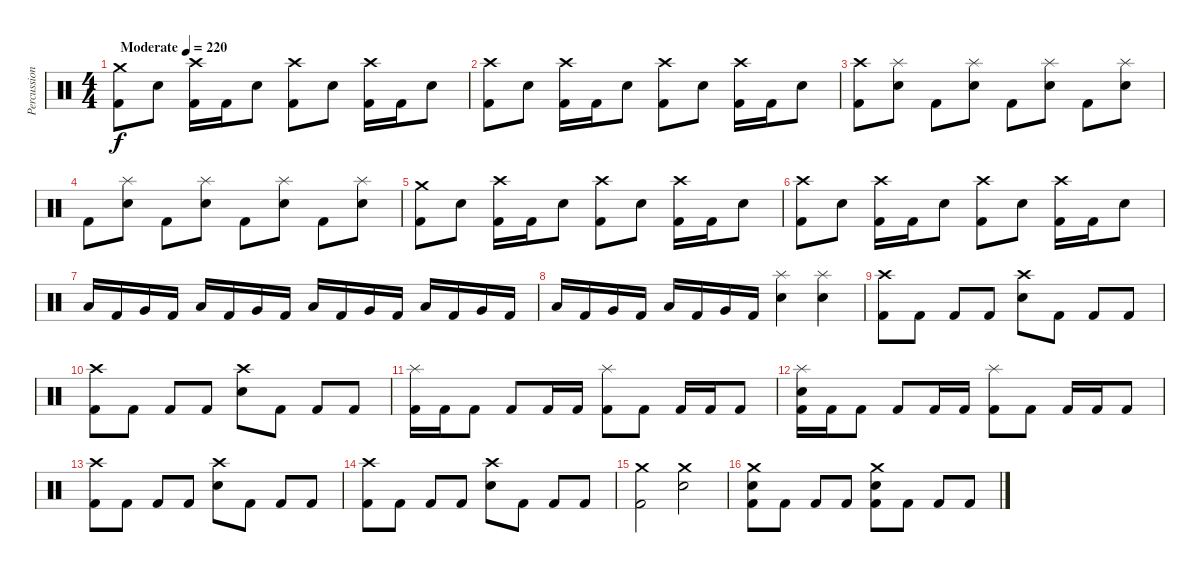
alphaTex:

\track ("Percussions" "Percussion") {instrument percussion}
\staff {score}
\articulation defaults
\ts (4 4)
\tempo (220 "Moderate")
\clef neutral
\ks c
("Crash medium (hit)" "Kick (hit) 2").8{dy f} "Electric Snare (hit)".8 ("Crash high (hit)" "Kick (hit) 2").16 "Kick (hit) 2".16 "Electric Snare (hit)".8 ("Crash high (hit)" "Kick (hit) 2").8 "Electric Snare (hit)".8 ("Crash high (hit)" "Kick (hit) 2").16 "Kick (hit) 2".16 "Electric Snare (hit)".8 |
("Crash high (hit)" "Kick (hit) 2").8 "Electric Snare (hit)".8 ("Crash high (hit)" "Kick (hit) 2").16 "Kick (hit) 2".16 "Electric Snare (hit)".8 ("Crash high (hit)" "Kick (hit) 2").8 "Electric Snare (hit)".8 ("Crash high (hit)" "Kick (hit) 2").16 "Kick (hit) 2".16 "Electric Snare (hit)".8 |
("Crash high (hit)" "Kick (hit) 2").8 ("Splash (hit)" "Electric Snare (hit)").8 "Kick (hit) 2".8 ("Splash (hit)" "Electric Snare (hit)").8 "Kick (hit) 2".8 ("Splash (hit)" "Electric Snare (hit)").8 "Kick (hit) 2".8 ("Splash (hit)" "Electric Snare (hit)").8 |
"Kick (hit) 2".8 ("Splash (hit)" "Electric Snare (hit)").8 "Kick (hit) 2".8 ("Splash (hit)" "Electric Snare (hit)").8 "Kick (hit) 2".8 ("Splash (hit)" "Electric Snare (hit)").8 "Kick (hit) 2".8 ("Splash (hit)" "Electric Snare (hit)").8 |
("Crash medium (hit)" "Kick (hit) 2").8 "Electric Snare (hit)".8 ("Crash high (hit)" "Kick (hit) 2").16 "Kick (hit) 2".16 "Electric Snare (hit)".8 ("Crash high (hit)" "Kick (hit) 2").8 "Electric Snare (hit)".8 ("Crash high (hit)" "Kick (hit) 2").16 "Kick (hit) 2".16 "Electric Snare (hit)".8 |
("Crash high (hit)" "Kick (hit) 2").8 "Electric Snare (hit)".8 ("Crash high (hit)" "Kick (hit) 2").16 "Kick (hit) 2".16 "Electric Snare (hit)".8 ("Crash high (hit)" "Kick (hit) 2").8 "Electric Snare (hit)".8 ("Crash high (hit)" "Kick (hit) 2").16 "Kick (hit) 2".16 "Electric Snare (hit)".8 |
"Low Tom (hit)".16 "Kick (hit) 2".16 "Very Low Tom (hit)".16 "Kick (hit) 2".16 "Low Floor Tom (hit)".16 "Kick (hit) 2".16 "Very Low Tom (hit)".16 "Kick (hit) 2".16 "Low Tom (hit)".16 "Kick (hit) 2".16 "Very Low Tom (hit)".16 "Kick (hit) 2".16 "Low Floor Tom (hit)".16 "Kick (hit) 2".16 "Very Low Tom (hit)".16 "Kick (hit) 2".16 |
"Low Tom (hit)".16 "Kick (hit) 2".16 "Very Low Tom (hit)".16 "Kick (hit) 2".16 "Low Floor Tom (hit)".16 "Kick (hit) 2".16 "Very Low Tom (hit)".16 "Kick (hit) 2".16 ("Splash (hit)" "Electric Snare (hit)").4 ("Splash (hit)" "Electric Snare (hit)").4 |
("Crash high (hit)" "Kick (hit) 2").8 "Kick (hit) 2".8 "Kick (hit) 2".8 "Kick (hit) 2".8 ("Crash high (hit)" "Electric Snare (hit)").8 "Kick (hit) 2".8 "Kick (hit) 2".8 "Kick (hit) 2".8 |
("Crash high (hit)" "Kick (hit) 2").8 "Kick (hit) 2".8 "Kick (hit) 2".8 "Kick (hit) 2".8 ("Crash high (hit)" "Electric Snare (hit)").8 "Kick (hit) 2".8 "Kick (hit) 2".8 "Kick (hit) 2".8 |
("Splash (hit)" "Kick (hit) 2").16 "Kick (hit) 2".16 "Kick (hit) 2".8 "Kick (hit) 2".8 "Kick (hit) 2".16 "Kick (hit) 2".16 ("Splash (hit)" "Kick (hit) 2").8 "Kick (hit) 2".8 "Kick (hit) 2".16 "Kick (hit) 2".16 "Kick (hit) 2".8 |
("Splash (hit)" "Electric Snare (hit)" "Kick (hit) 2").16 "Kick (hit) 2".16 "Kick (hit) 2".8 "Kick (hit) 2".8 "Kick (hit) 2".16 "Kick (hit) 2".16 ("Splash (hit)" "Kick (hit) 2").8 "Kick (hit) 2".8 "Kick (hit) 2".16 "Kick (hit) 2".16 "Kick (hit) 2".8 |
("Crash high (hit)" "Kick (hit) 2").8 "Kick (hit) 2".8 "Kick (hit) 2".8 "Kick (hit) 2".8 ("Crash high (hit)" "Electric Snare (hit)").8 "Kick (hit) 2".8 "Kick (hit) 2".8 "Kick (hit) 2".8 |
("Crash high (hit)" "Kick (hit) 2").8 "Kick (hit) 2".8 "Kick (hit) 2".8 "Kick (hit) 2".8 ("Crash high (hit)" "Electric Snare (hit)").8 "Kick (hit) 2".8 "Kick (hit) 2".8 "Kick (hit) 2".8 |
("Crash medium (hit)" "Kick (hit) 2").2 ("Crash medium (hit)" "Electric Snare (hit)").2 |
("Crash medium (hit)" "Electric Snare (hit)" "Kick (hit) 2").8 "Kick (hit) 2".8 "Kick (hit) 2".8 "Kick (hit) 2".8 ("Crash medium (hit)" "Electric Snare (hit)" "Kick (hit) 2").8 "Kick (hit) 2".8 "Kick (hit) 2".8 "Kick (hit) 2".8
